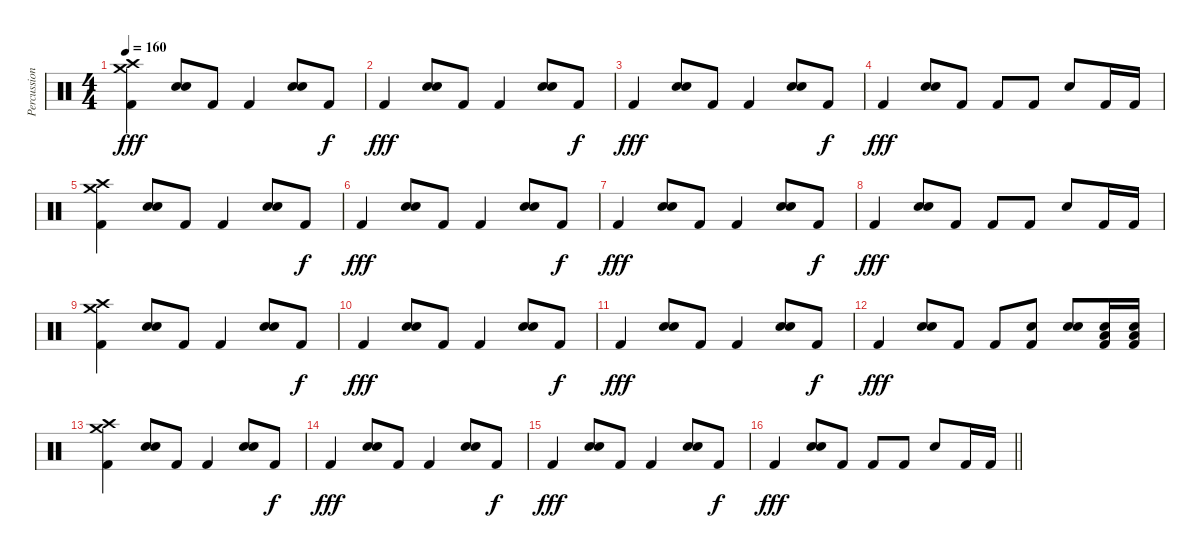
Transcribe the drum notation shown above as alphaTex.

\track ("Percussion" "Percussion") {instrument percussion}
\staff {score}
\articulation defaults
\ts (4 4)
\tempo 160
\clef neutral
\ks c
("Crash high (hit)" "Kick (hit) 2" "Crash medium (hit)").4{dy fff} ("Snare (hit) 2" "Electric Snare (hit)").8 "Kick (hit) 2".8 "Kick (hit) 2".4 ("Snare (hit) 2" "Electric Snare (hit)").8 "Kick (hit) 2".8{dy f} |
"Kick (hit) 2".4{dy fff} ("Snare (hit) 2" "Electric Snare (hit)").8 "Kick (hit) 2".8 "Kick (hit) 2".4 ("Snare (hit) 2" "Electric Snare (hit)").8 "Kick (hit) 2".8{dy f} |
"Kick (hit) 2".4{dy fff} ("Snare (hit) 2" "Electric Snare (hit)").8 "Kick (hit) 2".8 "Kick (hit) 2".4 ("Snare (hit) 2" "Electric Snare (hit)").8 "Kick (hit) 2".8{dy f} |
"Kick (hit) 2".4{dy fff} ("Snare (hit) 2" "Electric Snare (hit)").8 "Kick (hit) 2".8 "Kick (hit) 2".8 "Kick (hit) 2".8 "Snare (hit) 2".8 "Kick (hit) 2".16 "Kick (hit) 2".16 |
("Crash high (hit)" "Kick (hit) 2" "Crash medium (hit)").4 ("Snare (hit) 2" "Electric Snare (hit)").8 "Kick (hit) 2".8 "Kick (hit) 2".4 ("Snare (hit) 2" "Electric Snare (hit)").8 "Kick (hit) 2".8{dy f} |
"Kick (hit) 2".4{dy fff} ("Snare (hit) 2" "Electric Snare (hit)").8 "Kick (hit) 2".8 "Kick (hit) 2".4 ("Snare (hit) 2" "Electric Snare (hit)").8 "Kick (hit) 2".8{dy f} |
"Kick (hit) 2".4{dy fff} ("Snare (hit) 2" "Electric Snare (hit)").8 "Kick (hit) 2".8 "Kick (hit) 2".4 ("Snare (hit) 2" "Electric Snare (hit)").8 "Kick (hit) 2".8{dy f} |
"Kick (hit) 2".4{dy fff} ("Snare (hit) 2" "Electric Snare (hit)").8 "Kick (hit) 2".8 "Kick (hit) 2".8 "Kick (hit) 2".8 "Snare (hit) 2".8 "Kick (hit) 2".16 "Kick (hit) 2".16 |
("Crash high (hit)" "Kick (hit) 2" "Crash medium (hit)").4 ("Snare (hit) 2" "Electric Snare (hit)").8 "Kick (hit) 2".8 "Kick (hit) 2".4 ("Snare (hit) 2" "Electric Snare (hit)").8 "Kick (hit) 2".8{dy f} |
"Kick (hit) 2".4{dy fff} ("Snare (hit) 2" "Electric Snare (hit)").8 "Kick (hit) 2".8 "Kick (hit) 2".4 ("Snare (hit) 2" "Electric Snare (hit)").8 "Kick (hit) 2".8{dy f} |
"Kick (hit) 2".4{dy fff} ("Snare (hit) 2" "Electric Snare (hit)").8 "Kick (hit) 2".8 "Kick (hit) 2".4 ("Snare (hit) 2" "Electric Snare (hit)").8 "Kick (hit) 2".8{dy f} |
"Kick (hit) 2".4{dy fff} ("Snare (hit) 2" "Electric Snare (hit)").8 "Kick (hit) 2".8 "Kick (hit) 2".8 ("Kick (hit) 2" "Snare (hit) 2").8 ("Snare (hit) 2" "Snare (hit) 2").8 ("Kick (hit) 2" "Snare (hit) 2" "Low Floor Tom (hit)").16 ("Kick (hit) 2" "Snare (hit) 2" "Low Floor Tom (hit)").16 |
("Crash high (hit)" "Kick (hit) 2" "Crash medium (hit)").4 ("Snare (hit) 2" "Electric Snare (hit)").8 "Kick (hit) 2".8 "Kick (hit) 2".4 ("Snare (hit) 2" "Electric Snare (hit)").8 "Kick (hit) 2".8{dy f} |
"Kick (hit) 2".4{dy fff} ("Snare (hit) 2" "Electric Snare (hit)").8 "Kick (hit) 2".8 "Kick (hit) 2".4 ("Snare (hit) 2" "Electric Snare (hit)").8 "Kick (hit) 2".8{dy f} |
"Kick (hit) 2".4{dy fff} ("Snare (hit) 2" "Electric Snare (hit)").8 "Kick (hit) 2".8 "Kick (hit) 2".4 ("Snare (hit) 2" "Electric Snare (hit)").8 "Kick (hit) 2".8{dy f} |
\barLineRight lightlight "Kick (hit) 2".4{dy fff}
("Snare (hit) 2" "Electric Snare (hit)").8 "Kick (hit) 2".8 "Kick (hit) 2".8 "Kick (hit) 2".8 "Snare (hit) 2".8 "Kick (hit) 2".16 "Kick (hit) 2".16
